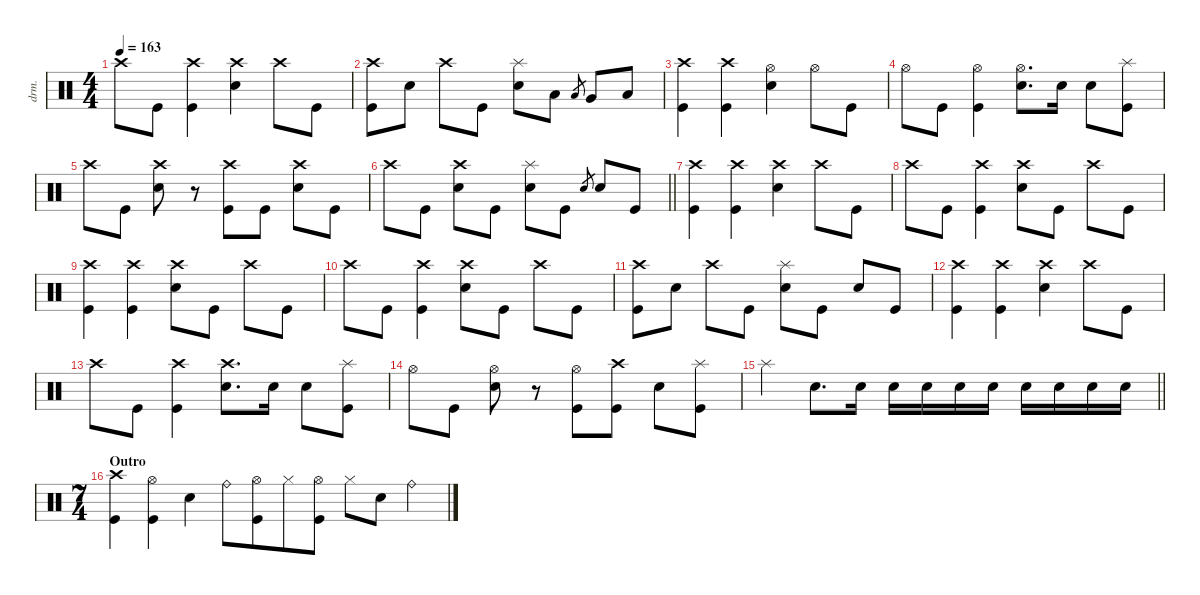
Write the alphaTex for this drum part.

\defaultSystemsLayout 4
\hideDynamics
\bracketExtendMode nobrackets
\otherSystemsTrackNameOrientation horizontal
\track ("Drums" "drm.") {instrument percussion}
\staff {score}
\articulation defaults
\ts (4 4)
\tempo 163
\clef neutral
\ks c "Crash high (hit)".8{dy f} "Kick (hit)".8
("Crash high (hit)" "Kick (hit)").4 ("Crash high (hit)" "Snare (hit) 2").4 "Crash high (hit)".8 "Kick (hit)".8 |
("Crash high (hit)" "Kick (hit)").8 "Snare (hit) 2".8 "Crash high (hit)".8 "Kick (hit)".8 ("Splash (hit)" "Snare (hit) 2").8 "Low Floor Tom (hit)".8 "Low Floor Tom (hit)".8{gr dy mf} "Very Low Tom (hit)".8{dy f} "Low Floor Tom (hit)".8 |
("Crash high (hit)" "Kick (hit)").4 ("Crash high (hit)" "Kick (hit)").4 ("Hi-Hat (open)" "Snare (hit) 2").4 "Hi-Hat (open)".8 "Kick (hit)".8 |
"Hi-Hat (open)".8 "Kick (hit)".8 ("Hi-Hat (open)" "Kick (hit)").4 ("Hi-Hat (open)" "Snare (hit) 2").8{d} "Snare (hit) 2".16 "Snare (hit) 2".8 ("Splash (hit)" "Kick (hit)").8 |
"Crash high (hit)".8 "Kick (hit)".8 ("Crash high (hit)" "Snare (hit) 2").8 r.8 ("Crash high (hit)" "Kick (hit)").8 "Kick (hit)".8 ("Crash high (hit)" "Snare (hit) 2").8 "Kick (hit)".8 |
\barLineRight lightlight "Crash high (hit)".8 "Kick (hit)".8
("Crash high (hit)" "Snare (hit) 2").8 "Kick (hit)".8 ("Splash (hit)" "Snare (hit) 2").8 "Kick (hit)".8 "Electric Snare (hit)".8{gr dy mf} "Snare (hit) 2".8{dy f} "Kick (hit)".8 |
\section ("" "")
("Crash high (hit)" "Kick (hit)").4 ("Crash high (hit)" "Kick (hit)").4 ("Crash high (hit)" "Snare (hit) 2").4 "Crash high (hit)".8 "Kick (hit)".8 |
"Crash high (hit)".8 "Kick (hit)".8 ("Crash high (hit)" "Kick (hit)").4 ("Crash high (hit)" "Snare (hit) 2").8 "Kick (hit)".8 "Crash high (hit)".8 "Kick (hit)".8 |
("Crash high (hit)" "Kick (hit)").4 ("Crash high (hit)" "Kick (hit)").4 ("Crash high (hit)" "Snare (hit) 2").8 "Kick (hit)".8 "Crash high (hit)".8 "Kick (hit)".8 |
"Crash high (hit)".8 "Kick (hit)".8 ("Crash high (hit)" "Kick (hit)").4 ("Crash high (hit)" "Snare (hit) 2").8 "Kick (hit)".8 "Crash high (hit)".8 "Kick (hit)".8 |
("Crash high (hit)" "Kick (hit)").8 "Snare (hit) 2".8 "Crash high (hit)".8 "Kick (hit)".8 ("Splash (hit)" "Snare (hit) 2").8 "Kick (hit)".8 "Snare (hit) 2".8 "Kick (hit)".8 |
("Crash high (hit)" "Kick (hit)").4 ("Crash high (hit)" "Kick (hit)").4 ("Crash high (hit)" "Snare (hit) 2").4 "Crash high (hit)".8 "Kick (hit)".8 |
"Crash high (hit)".8 "Kick (hit)".8 ("Crash high (hit)" "Kick (hit)").4 ("Crash high (hit)" "Snare (hit) 2").8{d} "Snare (hit) 2".16 "Snare (hit) 2".8 ("Splash (hit)" "Kick (hit)").8 |
"Hi-Hat (open)".8 "Kick (hit)".8 ("Hi-Hat (open)" "Snare (hit) 2").8 r.8 ("Hi-Hat (open)" "Kick (hit)").8 ("Crash high (hit)" "Kick (hit)").8 "Snare (hit) 2".8 ("Splash (hit)" "Kick (hit)").8 |
\barLineRight lightlight "Splash (hit)".4 "Snare (hit) 2".8{d} "Snare (hit) 2".16{dy mp} "Snare (hit) 2".16{dy f} "Snare (hit) 2".16 "Snare (hit) 2".16 "Snare (hit) 2".16 "Snare (hit) 2".16 "Snare (hit) 2".16 "Snare (hit) 2".16 "Snare (hit) 2".16
|
\ts (7 4)
\beaming (8 6 4 4)
\section ("" "Outro")
("Crash high (hit)" "Kick (hit)").4 ("Hi-Hat (open)" "Kick (hit)").4 "Snare (hit) 2".4 "Ride (bell)".8 ("Hi-Hat (open)" "Kick (hit)").8 "Hi-Hat (closed)".8 ("Hi-Hat (open)" "Kick (hit)").8 "Hi-Hat (closed)".8 "Snare (hit) 2".8 "Ride (bell)".4
